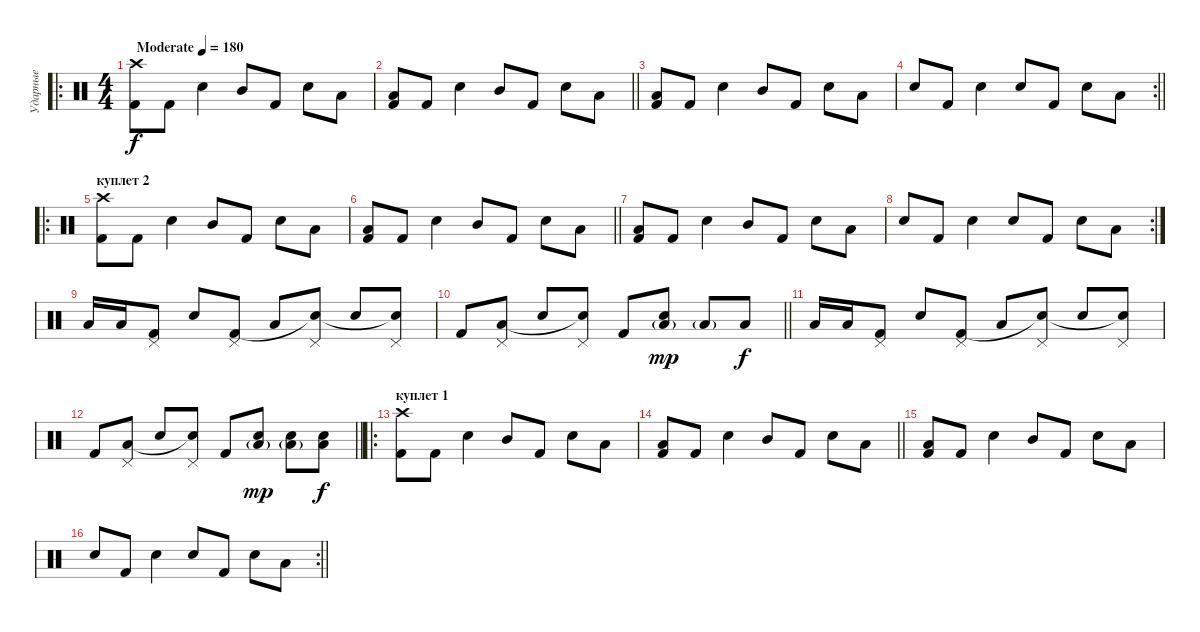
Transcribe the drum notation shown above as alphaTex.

\track ("Ударные" "Ударные") {instrument percussion}
\staff {score}
\articulation defaults
\ro
\ts (4 4)
\tempo (180 "Moderate")
\clef neutral
\ks c
("Crash high (hit)" "Kick (hit) 2").8{dy f} "Kick (hit) 2".8 "Electric Snare (hit)".4 "Mid Tom (hit)".8 "Kick (hit) 2".8 "Snare (hit) 2".8 "Low Tom (hit)".8 |
\barLineRight lightlight
("Kick (hit) 2" "Low Floor Tom (hit)").8 "Kick (hit) 2".8 "Snare (hit) 2".4 "Mid Tom (hit)".8 "Kick (hit) 2".8 "Snare (hit) 2".8 "Low Tom (hit)".8 |
("Kick (hit) 2" "Low Floor Tom (hit)").8 "Kick (hit) 2".8 "Snare (hit) 2".4 "Mid Tom (hit)".8 "Kick (hit) 2".8 "Snare (hit) 2".8 "Low Tom (hit)".8 |
\rc 2
\barLineRight lightlight "Snare (hit) 2".8 "Kick (hit) 2".8 "Snare (hit) 2".4 "Snare (hit) 2".8 "Kick (hit) 2".8 "Snare (hit) 2".8 "Low Tom (hit)".8
|
\ro
\section ("" "куплет 2")
("Crash high (hit)" "Kick (hit) 2").8 "Kick (hit) 2".8 "Electric Snare (hit)".4 "Mid Tom (hit)".8 "Kick (hit) 2".8 "Snare (hit) 2".8 "Low Tom (hit)".8 |
\barLineRight lightlight
("Kick (hit) 2" "Low Floor Tom (hit)").8 "Kick (hit) 2".8 "Snare (hit) 2".4 "Mid Tom (hit)".8 "Kick (hit) 2".8 "Snare (hit) 2".8 "Low Tom (hit)".8 |
("Kick (hit) 2" "Low Floor Tom (hit)").8 "Kick (hit) 2".8 "Snare (hit) 2".4 "Mid Tom (hit)".8 "Kick (hit) 2".8 "Snare (hit) 2".8 "Low Tom (hit)".8 |
\rc 2 "Snare (hit) 2".8 "Kick (hit) 2".8 "Snare (hit) 2".4 "Snare (hit) 2".8 "Kick (hit) 2".8 "Snare (hit) 2".8 "Low Tom (hit)".8
|
"Low Tom (hit)".16 "Low Tom (hit)".16 ("Pedal Hi-Hat (hit)" "Kick (hit) 2").8 "Snare (hit) 2".8 ("Pedal Hi-Hat (hit)" "Kick (hit) 2").8 "Low Floor Tom (hit)".8 ("Pedal Hi-Hat (hit)" "Snare (hit)"{t}).8 "Snare (hit) 2".8 ("Pedal Hi-Hat (hit)" "Snare (hit)"{t}).8 |
\barLineRight lightlight "Kick (hit) 2".8
("Pedal Hi-Hat (hit)" "Low Floor Tom (hit)").8 "Snare (hit) 2".8 ("Pedal Hi-Hat (hit)" "Snare (hit)"{t}).8 "Kick (hit) 2".8 ("Low Floor Tom (hit)"{g} "Snare (hit) 2").8{dy mp} "Low Floor Tom (hit)"{g}.8 "Low Floor Tom (hit)".8{dy f} |
"Low Tom (hit)".16 "Low Tom (hit)".16 ("Pedal Hi-Hat (hit)" "Kick (hit) 2").8 "Snare (hit) 2".8 ("Pedal Hi-Hat (hit)" "Kick (hit) 2").8 "Low Floor Tom (hit)".8 ("Pedal Hi-Hat (hit)" "Snare (hit)"{t}).8 "Snare (hit) 2".8 ("Pedal Hi-Hat (hit)" "Snare (hit)"{t}).8 |
\barLineRight lightlight "Kick (hit) 2".8
("Pedal Hi-Hat (hit)" "Low Floor Tom (hit)").8 "Snare (hit) 2".8 ("Pedal Hi-Hat (hit)" "Snare (hit)"{t}).8 "Kick (hit) 2".8 ("Low Floor Tom (hit)"{g} "Snare (hit) 2").8{dy mp} ("Low Floor Tom (hit)"{g} "Snare (hit) 2").8 ("Low Floor Tom (hit)" "Snare (hit) 2").8{dy f} |
\ro
\section ("" "куплет 1")
("Crash high (hit)" "Kick (hit) 2").8 "Kick (hit) 2".8 "Electric Snare (hit)".4 "Mid Tom (hit)".8 "Kick (hit) 2".8 "Snare (hit) 2".8 "Low Tom (hit)".8 |
\barLineRight lightlight
("Kick (hit) 2" "Low Floor Tom (hit)").8 "Kick (hit) 2".8 "Snare (hit) 2".4 "Mid Tom (hit)".8 "Kick (hit) 2".8 "Snare (hit) 2".8 "Low Tom (hit)".8 |
("Kick (hit) 2" "Low Floor Tom (hit)").8 "Kick (hit) 2".8 "Snare (hit) 2".4 "Mid Tom (hit)".8 "Kick (hit) 2".8 "Snare (hit) 2".8 "Low Tom (hit)".8 |
\rc 2
\barLineRight lightlight "Snare (hit) 2".8 "Kick (hit) 2".8 "Snare (hit) 2".4 "Snare (hit) 2".8 "Kick (hit) 2".8 "Snare (hit) 2".8 "Low Tom (hit)".8
